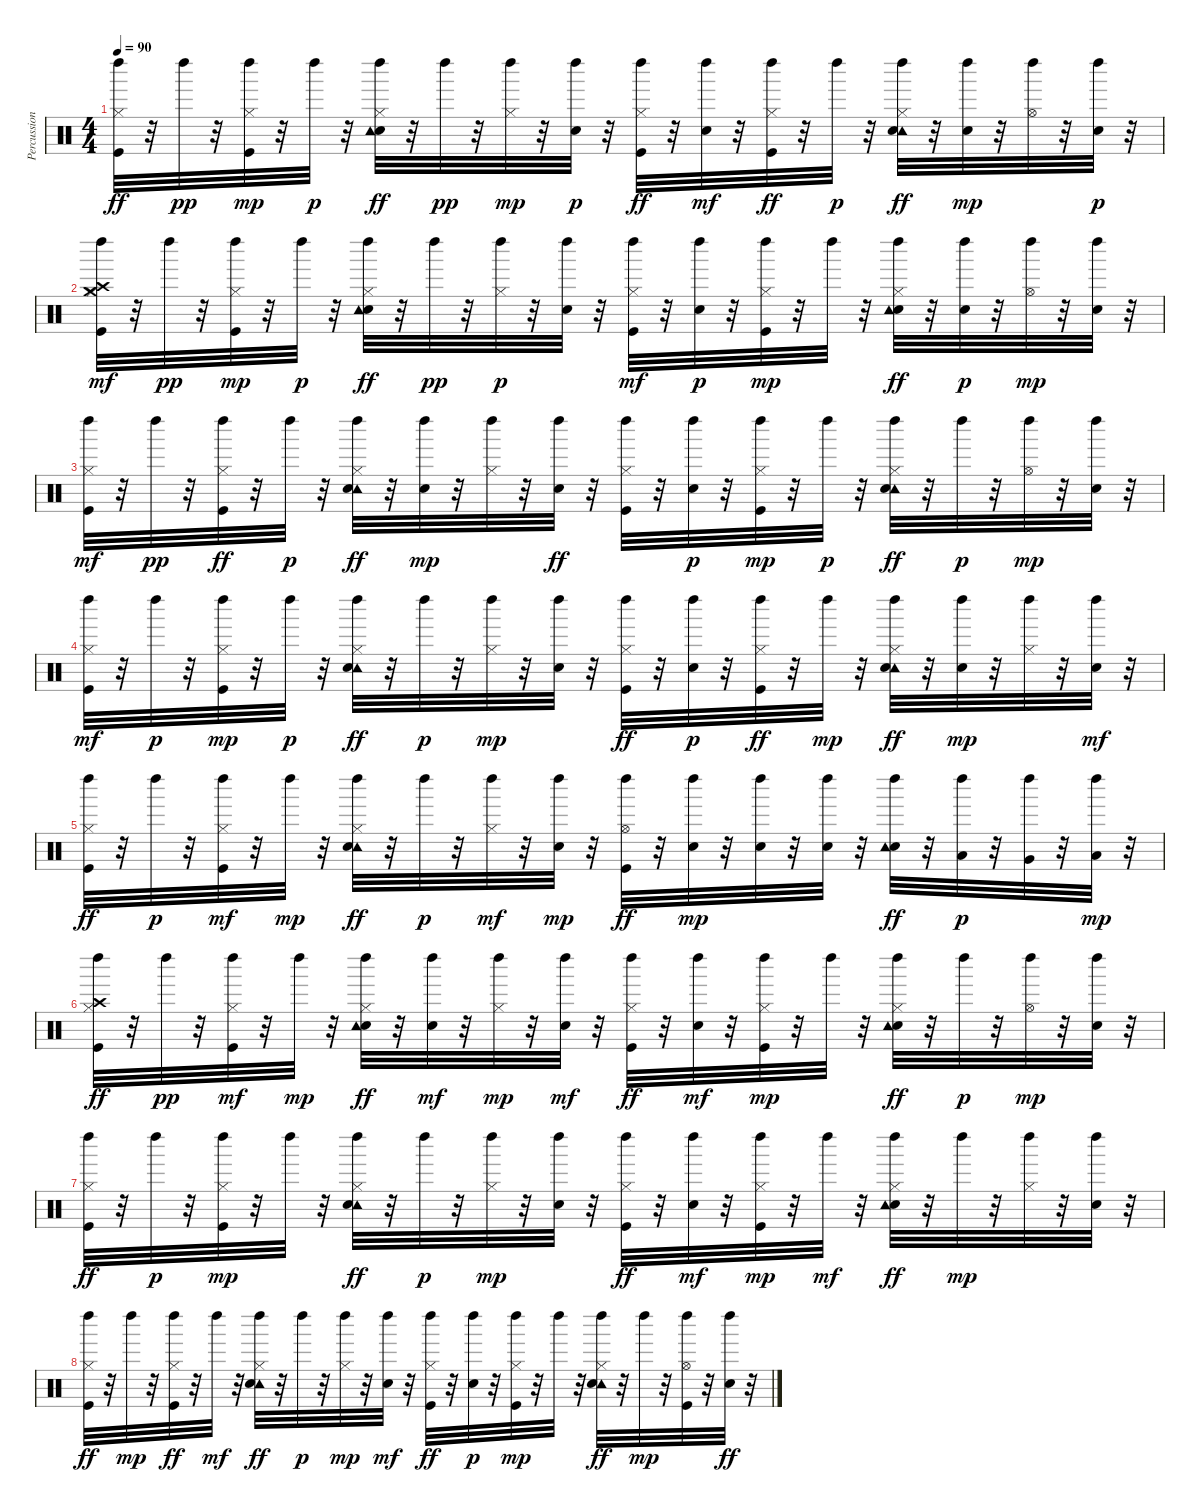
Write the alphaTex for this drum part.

\track ("Percussions" "Percussion") {instrument percussion}
\staff {score}
\articulation defaults
\ts (4 4)
\tempo 90
\clef neutral
\ks c
("Kick (hit)" "Left Maraca (hit)" "Hi-Hat (closed)").32{dy ff} r.32 "Left Maraca (hit)".32{dy pp} r.32 ("Hi-Hat (closed)" "Kick (hit)" "Left Maraca (hit)").32{dy mp} r.32 "Left Maraca (hit)".32{dy p} r.32 ("Electric Snare (hit)" "Tambourine (hit)" "Left Maraca (hit)" "Hi-Hat (closed)").32{dy ff} r.32 "Left Maraca (hit)".32{dy pp} r.32 ("Hi-Hat (closed)" "Left Maraca (hit)").32{dy mp} r.32 ("Electric Snare (hit)" "Left Maraca (hit)").32{dy p} r.32 ("Left Maraca (hit)" "Hi-Hat (closed)" "Kick (hit)").32{dy ff} r.32 ("Left Maraca (hit)" "Electric Snare (hit)").32{dy mf} r.32 ("Left Maraca (hit)" "Hi-Hat (closed)" "Kick (hit)").32{dy ff} r.32 "Left Maraca (hit)".32{dy p} r.32 ("Tambourine (hit)" "Left Maraca (hit)" "Hi-Hat (closed)" "Electric Snare (hit)").32{dy ff} r.32 ("Left Maraca (hit)" "Electric Snare (hit)").32{dy mp} r.32 ("Hi-Hat (open)" "Left Maraca (hit)").32 r.32 ("Electric Snare (hit)" "Left Maraca (hit)").32{dy p} r.32 |
("Crash medium (hit)" "Crash high (hit)" "Hi-Hat (closed)" "Kick (hit)" "Left Maraca (hit)").32{dy mf} r.32 "Left Maraca (hit)".32{dy pp} r.32 ("Hi-Hat (closed)" "Kick (hit)" "Left Maraca (hit)").32{dy mp} r.32 "Left Maraca (hit)".32{dy p} r.32 ("Hi-Hat (closed)" "Electric Snare (hit)" "Tambourine (hit)" "Left Maraca (hit)").32{dy ff} r.32 "Left Maraca (hit)".32{dy pp} r.32 ("Hi-Hat (closed)" "Left Maraca (hit)").32{dy p} r.32 ("Electric Snare (hit)" "Left Maraca (hit)").32 r.32 ("Kick (hit)" "Left Maraca (hit)" "Hi-Hat (closed)").32{dy mf} r.32 ("Electric Snare (hit)" "Left Maraca (hit)").32{dy p} r.32 ("Hi-Hat (closed)" "Kick (hit)" "Left Maraca (hit)").32{dy mp} r.32 "Left Maraca (hit)".32 r.32 ("Hi-Hat (closed)" "Electric Snare (hit)" "Left Maraca (hit)" "Tambourine (hit)").32{dy ff} r.32 ("Electric Snare (hit)" "Left Maraca (hit)").32{dy p} r.32 ("Hi-Hat (open)" "Left Maraca (hit)").32{dy mp} r.32 ("Electric Snare (hit)" "Left Maraca (hit)").32 r.32 |
("Kick (hit)" "Left Maraca (hit)" "Hi-Hat (closed)").32{dy mf} r.32 "Left Maraca (hit)".32{dy pp} r.32 ("Hi-Hat (closed)" "Left Maraca (hit)" "Kick (hit)").32{dy ff} r.32 "Left Maraca (hit)".32{dy p} r.32 ("Tambourine (hit)" "Left Maraca (hit)" "Hi-Hat (closed)" "Electric Snare (hit)").32{dy ff} r.32 ("Left Maraca (hit)" "Electric Snare (hit)").32{dy mp} r.32 ("Hi-Hat (closed)" "Left Maraca (hit)").32 r.32 ("Left Maraca (hit)" "Electric Snare (hit)").32{dy ff} r.32 ("Hi-Hat (closed)" "Left Maraca (hit)" "Kick (hit)").32 r.32 ("Left Maraca (hit)" "Electric Snare (hit)").32{dy p} r.32 ("Hi-Hat (closed)" "Kick (hit)" "Left Maraca (hit)").32{dy mp} r.32 "Left Maraca (hit)".32{dy p} r.32 ("Tambourine (hit)" "Electric Snare (hit)" "Left Maraca (hit)" "Hi-Hat (closed)").32{dy ff} r.32 "Left Maraca (hit)".32{dy p} r.32 ("Hi-Hat (open)" "Left Maraca (hit)").32{dy mp} r.32 ("Electric Snare (hit)" "Left Maraca (hit)").32 r.32 |
("Kick (hit)" "Hi-Hat (closed)" "Left Maraca (hit)").32{dy mf} r.32 "Left Maraca (hit)".32{dy p} r.32 ("Hi-Hat (closed)" "Kick (hit)" "Left Maraca (hit)").32{dy mp} r.32 "Left Maraca (hit)".32{dy p} r.32 ("Tambourine (hit)" "Hi-Hat (closed)" "Electric Snare (hit)" "Left Maraca (hit)").32{dy ff} r.32 "Left Maraca (hit)".32{dy p} r.32 ("Hi-Hat (closed)" "Left Maraca (hit)").32{dy mp} r.32 ("Electric Snare (hit)" "Left Maraca (hit)").32 r.32 ("Kick (hit)" "Hi-Hat (closed)" "Left Maraca (hit)").32{dy ff} r.32 ("Left Maraca (hit)" "Electric Snare (hit)").32{dy p} r.32 ("Left Maraca (hit)" "Hi-Hat (closed)" "Kick (hit)").32{dy ff} r.32 "Left Maraca (hit)".32{dy mp} r.32 ("Tambourine (hit)" "Left Maraca (hit)" "Hi-Hat (closed)" "Electric Snare (hit)").32{dy ff} r.32 ("Left Maraca (hit)" "Electric Snare (hit)").32{dy mp} r.32 ("Hi-Hat (closed)" "Left Maraca (hit)").32 r.32 ("Electric Snare (hit)" "Left Maraca (hit)").32{dy mf} r.32 |
("Hi-Hat (closed)" "Kick (hit)" "Left Maraca (hit)").32{dy ff} r.32 "Left Maraca (hit)".32{dy p} r.32 ("Hi-Hat (closed)" "Kick (hit)" "Left Maraca (hit)").32{dy mf} r.32 "Left Maraca (hit)".32{dy mp} r.32 ("Tambourine (hit)" "Hi-Hat (closed)" "Electric Snare (hit)" "Left Maraca (hit)").32{dy ff} r.32 "Left Maraca (hit)".32{dy p} r.32 ("Hi-Hat (closed)" "Left Maraca (hit)").32{dy mf} r.32 ("Electric Snare (hit)" "Left Maraca (hit)").32{dy mp} r.32 ("Hi-Hat (open)" "Kick (hit)" "Left Maraca (hit)").32{dy ff} r.32 ("Electric Snare (hit)" "Left Maraca (hit)").32{dy mp} r.32 ("Electric Snare (hit)" "Left Maraca (hit)").32 r.32 ("Left Maraca (hit)" "Electric Snare (hit)").32 r.32 ("Electric Snare (hit)" "Tambourine (hit)" "Left Maraca (hit)").32{dy ff} r.32 ("Low Tom (hit)" "Left Maraca (hit)").32{dy p} r.32 ("Very Low Tom (hit)" "Left Maraca (hit)").32 r.32 ("Low Floor Tom (hit)" "Left Maraca (hit)").32{dy mp} r.32 |
("Left Maraca (hit)" "Kick (hit)" "Crash high (hit)" "Hi-Hat (closed)").32{dy ff} r.32 "Left Maraca (hit)".32{dy pp} r.32 ("Kick (hit)" "Left Maraca (hit)" "Hi-Hat (closed)").32{dy mf} r.32 "Left Maraca (hit)".32{dy mp} r.32 ("Electric Snare (hit)" "Left Maraca (hit)" "Hi-Hat (closed)" "Tambourine (hit)").32{dy ff} r.32 ("Left Maraca (hit)" "Electric Snare (hit)").32{dy mf} r.32 ("Hi-Hat (closed)" "Left Maraca (hit)").32{dy mp} r.32 ("Electric Snare (hit)" "Left Maraca (hit)").32{dy mf} r.32 ("Hi-Hat (closed)" "Kick (hit)" "Left Maraca (hit)").32{dy ff} r.32 ("Left Maraca (hit)" "Electric Snare (hit)").32{dy mf} r.32 ("Hi-Hat (closed)" "Kick (hit)" "Left Maraca (hit)").32{dy mp} r.32 "Left Maraca (hit)".32 r.32 ("Left Maraca (hit)" "Hi-Hat (closed)" "Electric Snare (hit)" "Tambourine (hit)").32{dy ff} r.32 "Left Maraca (hit)".32{dy p} r.32 ("Hi-Hat (open)" "Left Maraca (hit)").32{dy mp} r.32 ("Electric Snare (hit)" "Left Maraca (hit)").32 r.32 |
("Hi-Hat (closed)" "Kick (hit)" "Left Maraca (hit)").32{dy ff} r.32 "Left Maraca (hit)".32{dy p} r.32 ("Hi-Hat (closed)" "Kick (hit)" "Left Maraca (hit)").32{dy mp} r.32 "Left Maraca (hit)".32 r.32 ("Tambourine (hit)" "Hi-Hat (closed)" "Electric Snare (hit)" "Left Maraca (hit)").32{dy ff} r.32 "Left Maraca (hit)".32{dy p} r.32 ("Hi-Hat (closed)" "Left Maraca (hit)").32{dy mp} r.32 ("Electric Snare (hit)" "Left Maraca (hit)").32 r.32 ("Hi-Hat (closed)" "Kick (hit)" "Left Maraca (hit)").32{dy ff} r.32 ("Left Maraca (hit)" "Electric Snare (hit)").32{dy mf} r.32 ("Hi-Hat (closed)" "Kick (hit)" "Left Maraca (hit)").32{dy mp} r.32 "Left Maraca (hit)".32{dy mf} r.32 ("Hi-Hat (closed)" "Electric Snare (hit)" "Tambourine (hit)" "Left Maraca (hit)").32{dy ff} r.32 "Left Maraca (hit)".32{dy mp} r.32 ("Hi-Hat (closed)" "Left Maraca (hit)").32 r.32 ("Left Maraca (hit)" "Electric Snare (hit)").32 r.32 |
("Kick (hit)" "Left Maraca (hit)" "Hi-Hat (closed)").32{dy ff} r.32 "Left Maraca (hit)".32{dy mp} r.32 ("Left Maraca (hit)" "Hi-Hat (closed)" "Kick (hit)").32{dy ff} r.32 "Left Maraca (hit)".32{dy mf} r.32 ("Tambourine (hit)" "Left Maraca (hit)" "Hi-Hat (closed)" "Electric Snare (hit)").32{dy ff} r.32 "Left Maraca (hit)".32{dy p} r.32 ("Hi-Hat (closed)" "Left Maraca (hit)").32{dy mp} r.32 ("Electric Snare (hit)" "Left Maraca (hit)").32{dy mf} r.32 ("Hi-Hat (closed)" "Kick (hit)" "Left Maraca (hit)").32{dy ff} r.32 ("Electric Snare (hit)" "Left Maraca (hit)").32{dy p} r.32 ("Kick (hit)" "Left Maraca (hit)" "Hi-Hat (closed)").32{dy mp} r.32 "Left Maraca (hit)".32 r.32 ("Hi-Hat (closed)" "Tambourine (hit)" "Left Maraca (hit)" "Electric Snare (hit)").32{dy ff} r.32 "Left Maraca (hit)".32{dy mp} r.32 ("Hi-Hat (open)" "Kick (hit)" "Left Maraca (hit)").32 r.32 ("Left Maraca (hit)" "Electric Snare (hit)").32{dy ff} r.32
